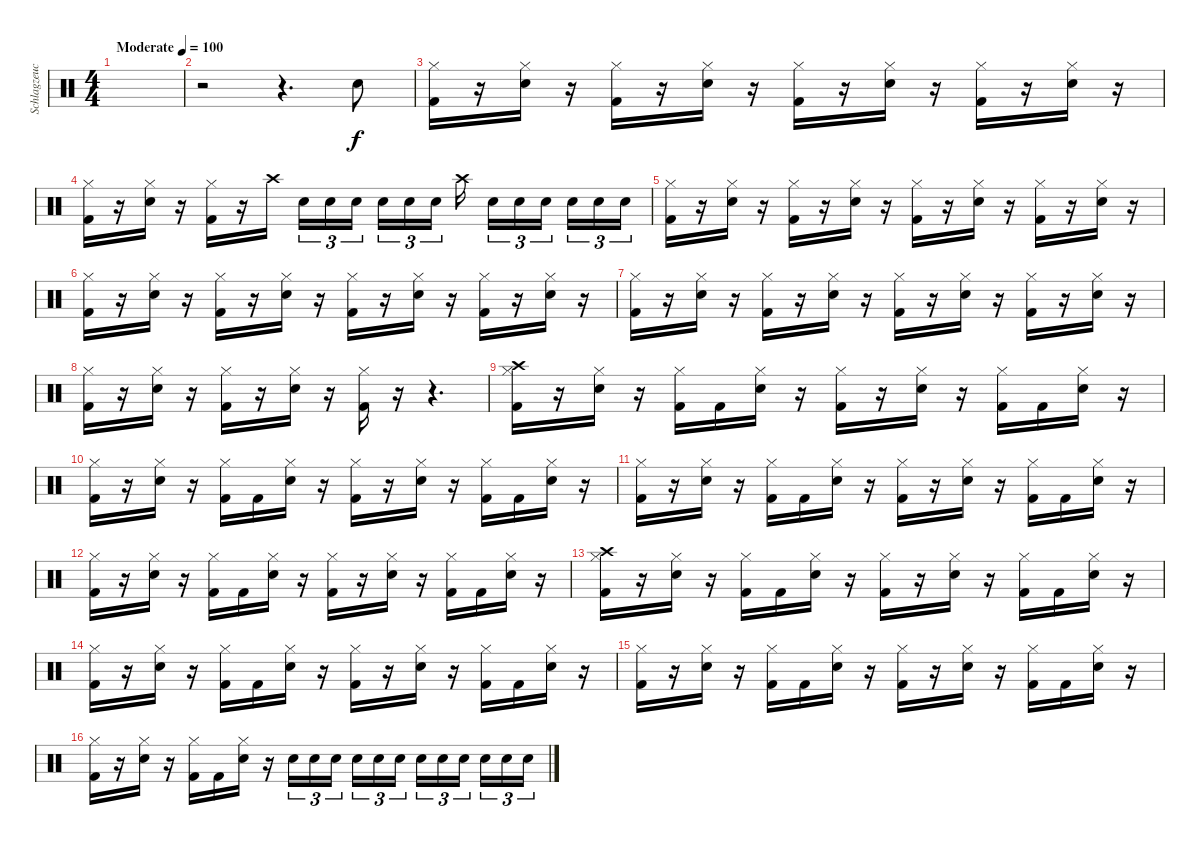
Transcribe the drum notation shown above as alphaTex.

\track ("Schlagzeuch" "Schlagzeuc") {instrument percussion}
\staff {score}
\articulation defaults
\ts (4 4)
\tempo (100 "Moderate")
\clef neutral
\ks c
|
r.2 r.4{d} "Snare (hit) 2".8 |
("Hi-Hat (closed)" "Kick (hit) 2").16 r.16 ("Hi-Hat (closed)" "Snare (hit) 2").16 r.16 ("Hi-Hat (closed)" "Kick (hit) 2").16 r.16 ("Hi-Hat (closed)" "Snare (hit) 2").16 r.16 ("Hi-Hat (closed)" "Kick (hit) 2").16 r.16 ("Hi-Hat (closed)" "Snare (hit) 2").16 r.16 ("Hi-Hat (closed)" "Kick (hit) 2").16 r.16 ("Hi-Hat (closed)" "Snare (hit) 2").16 r.16 |
("Hi-Hat (closed)" "Kick (hit) 2").16 r.16 ("Hi-Hat (closed)" "Snare (hit) 2").16 r.16 ("Hi-Hat (closed)" "Kick (hit) 2").16 r.16 "Crash high (hit)".16{beam splitsecondary} "Snare (hit) 2".16{tu (3 2)} "Snare (hit) 2".16{tu (3 2)} "Snare (hit) 2".16{tu (3 2) beam splitsecondary} "Snare (hit) 2".16{tu (3 2)} "Snare (hit) 2".16{tu (3 2)} "Snare (hit) 2".16{tu (3 2) beam splitsecondary} "Crash high (hit)".16 "Snare (hit) 2".16{tu (3 2)} "Snare (hit) 2".16{tu (3 2)} "Snare (hit) 2".16{tu (3 2) beam splitsecondary} "Snare (hit) 2".16{tu (3 2)} "Snare (hit) 2".16{tu (3 2)} "Snare (hit) 2".16{tu (3 2)} |
("Hi-Hat (closed)" "Kick (hit) 2").16 r.16 ("Hi-Hat (closed)" "Snare (hit) 2").16 r.16 ("Hi-Hat (closed)" "Kick (hit) 2").16 r.16 ("Hi-Hat (closed)" "Snare (hit) 2").16 r.16 ("Hi-Hat (closed)" "Kick (hit) 2").16 r.16 ("Hi-Hat (closed)" "Snare (hit) 2").16 r.16 ("Hi-Hat (closed)" "Kick (hit) 2").16 r.16 ("Hi-Hat (closed)" "Snare (hit) 2").16 r.16 |
("Hi-Hat (closed)" "Kick (hit) 2").16 r.16 ("Hi-Hat (closed)" "Snare (hit) 2").16 r.16 ("Hi-Hat (closed)" "Kick (hit) 2").16 r.16 ("Hi-Hat (closed)" "Snare (hit) 2").16 r.16 ("Hi-Hat (closed)" "Kick (hit) 2").16 r.16 ("Hi-Hat (closed)" "Snare (hit) 2").16 r.16 ("Hi-Hat (closed)" "Kick (hit) 2").16 r.16 ("Hi-Hat (closed)" "Snare (hit) 2").16 r.16 |
("Hi-Hat (closed)" "Kick (hit) 2").16 r.16 ("Hi-Hat (closed)" "Snare (hit) 2").16 r.16 ("Hi-Hat (closed)" "Kick (hit) 2").16 r.16 ("Hi-Hat (closed)" "Snare (hit) 2").16 r.16 ("Hi-Hat (closed)" "Kick (hit) 2").16 r.16 ("Hi-Hat (closed)" "Snare (hit) 2").16 r.16 ("Hi-Hat (closed)" "Kick (hit) 2").16 r.16 ("Hi-Hat (closed)" "Snare (hit) 2").16 r.16 |
("Hi-Hat (closed)" "Kick (hit) 2").16 r.16 ("Hi-Hat (closed)" "Snare (hit) 2").16 r.16 ("Hi-Hat (closed)" "Kick (hit) 2").16 r.16 ("Hi-Hat (closed)" "Snare (hit) 2").16 r.16 ("Hi-Hat (closed)" "Kick (hit) 2").16 r.16 r.4{d} |
("Hi-Hat (closed)" "Kick (hit) 2" "Crash high (hit)").16 r.16 ("Hi-Hat (closed)" "Snare (hit) 2").16 r.16 ("Hi-Hat (closed)" "Kick (hit) 2").16 "Kick (hit) 2".16 ("Hi-Hat (closed)" "Snare (hit) 2").16 r.16 ("Hi-Hat (closed)" "Kick (hit) 2").16 r.16 ("Hi-Hat (closed)" "Snare (hit) 2").16 r.16 ("Hi-Hat (closed)" "Kick (hit) 2").16 "Kick (hit) 2".16 ("Hi-Hat (closed)" "Snare (hit) 2").16 r.16 |
("Hi-Hat (closed)" "Kick (hit) 2").16 r.16 ("Hi-Hat (closed)" "Snare (hit) 2").16 r.16 ("Hi-Hat (closed)" "Kick (hit) 2").16 "Kick (hit) 2".16 ("Hi-Hat (closed)" "Snare (hit) 2").16 r.16 ("Hi-Hat (closed)" "Kick (hit) 2").16 r.16 ("Hi-Hat (closed)" "Snare (hit) 2").16 r.16 ("Hi-Hat (closed)" "Kick (hit) 2").16 "Kick (hit) 2".16 ("Hi-Hat (closed)" "Snare (hit) 2").16 r.16 |
("Hi-Hat (closed)" "Kick (hit) 2").16 r.16 ("Hi-Hat (closed)" "Snare (hit) 2").16 r.16 ("Hi-Hat (closed)" "Kick (hit) 2").16 "Kick (hit) 2".16 ("Hi-Hat (closed)" "Snare (hit) 2").16 r.16 ("Hi-Hat (closed)" "Kick (hit) 2").16 r.16 ("Hi-Hat (closed)" "Snare (hit) 2").16 r.16 ("Hi-Hat (closed)" "Kick (hit) 2").16 "Kick (hit) 2".16 ("Hi-Hat (closed)" "Snare (hit) 2").16 r.16 |
("Hi-Hat (closed)" "Kick (hit) 2").16 r.16 ("Hi-Hat (closed)" "Snare (hit) 2").16 r.16 ("Hi-Hat (closed)" "Kick (hit) 2").16 "Kick (hit) 2".16 ("Hi-Hat (closed)" "Snare (hit) 2").16 r.16 ("Hi-Hat (closed)" "Kick (hit) 2").16 r.16 ("Hi-Hat (closed)" "Snare (hit) 2").16 r.16 ("Hi-Hat (closed)" "Kick (hit) 2").16 "Kick (hit) 2".16 ("Hi-Hat (closed)" "Snare (hit) 2").16 r.16 |
("Hi-Hat (closed)" "Kick (hit) 2" "Crash high (hit)").16 r.16 ("Hi-Hat (closed)" "Snare (hit) 2").16 r.16 ("Hi-Hat (closed)" "Kick (hit) 2").16 "Kick (hit) 2".16 ("Hi-Hat (closed)" "Snare (hit) 2").16 r.16 ("Hi-Hat (closed)" "Kick (hit) 2").16 r.16 ("Hi-Hat (closed)" "Snare (hit) 2").16 r.16 ("Hi-Hat (closed)" "Kick (hit) 2").16 "Kick (hit) 2".16 ("Hi-Hat (closed)" "Snare (hit) 2").16 r.16 |
("Hi-Hat (closed)" "Kick (hit) 2").16 r.16 ("Hi-Hat (closed)" "Snare (hit) 2").16 r.16 ("Hi-Hat (closed)" "Kick (hit) 2").16 "Kick (hit) 2".16 ("Hi-Hat (closed)" "Snare (hit) 2").16 r.16 ("Hi-Hat (closed)" "Kick (hit) 2").16 r.16 ("Hi-Hat (closed)" "Snare (hit) 2").16 r.16 ("Hi-Hat (closed)" "Kick (hit) 2").16 "Kick (hit) 2".16 ("Hi-Hat (closed)" "Snare (hit) 2").16 r.16 |
("Hi-Hat (closed)" "Kick (hit) 2").16 r.16 ("Hi-Hat (closed)" "Snare (hit) 2").16 r.16 ("Hi-Hat (closed)" "Kick (hit) 2").16 "Kick (hit) 2".16 ("Hi-Hat (closed)" "Snare (hit) 2").16 r.16 ("Hi-Hat (closed)" "Kick (hit) 2").16 r.16 ("Hi-Hat (closed)" "Snare (hit) 2").16 r.16 ("Hi-Hat (closed)" "Kick (hit) 2").16 "Kick (hit) 2".16 ("Hi-Hat (closed)" "Snare (hit) 2").16 r.16 |
("Hi-Hat (closed)" "Kick (hit) 2").16 r.16 ("Hi-Hat (closed)" "Snare (hit) 2").16 r.16 ("Hi-Hat (closed)" "Kick (hit) 2").16 "Kick (hit) 2".16 ("Hi-Hat (closed)" "Snare (hit) 2").16 r.16 "Snare (hit) 2".16{tu (3 2)} "Snare (hit) 2".16{tu (3 2)} "Snare (hit) 2".16{tu (3 2) beam splitsecondary} "Snare (hit) 2".16{tu (3 2)} "Snare (hit) 2".16{tu (3 2)} "Snare (hit) 2".16{tu (3 2)} "Snare (hit) 2".16{tu (3 2)} "Snare (hit) 2".16{tu (3 2)} "Snare (hit) 2".16{tu (3 2) beam splitsecondary} "Snare (hit) 2".16{tu (3 2)} "Snare (hit) 2".16{tu (3 2)} "Snare (hit) 2".16{tu (3 2)}
